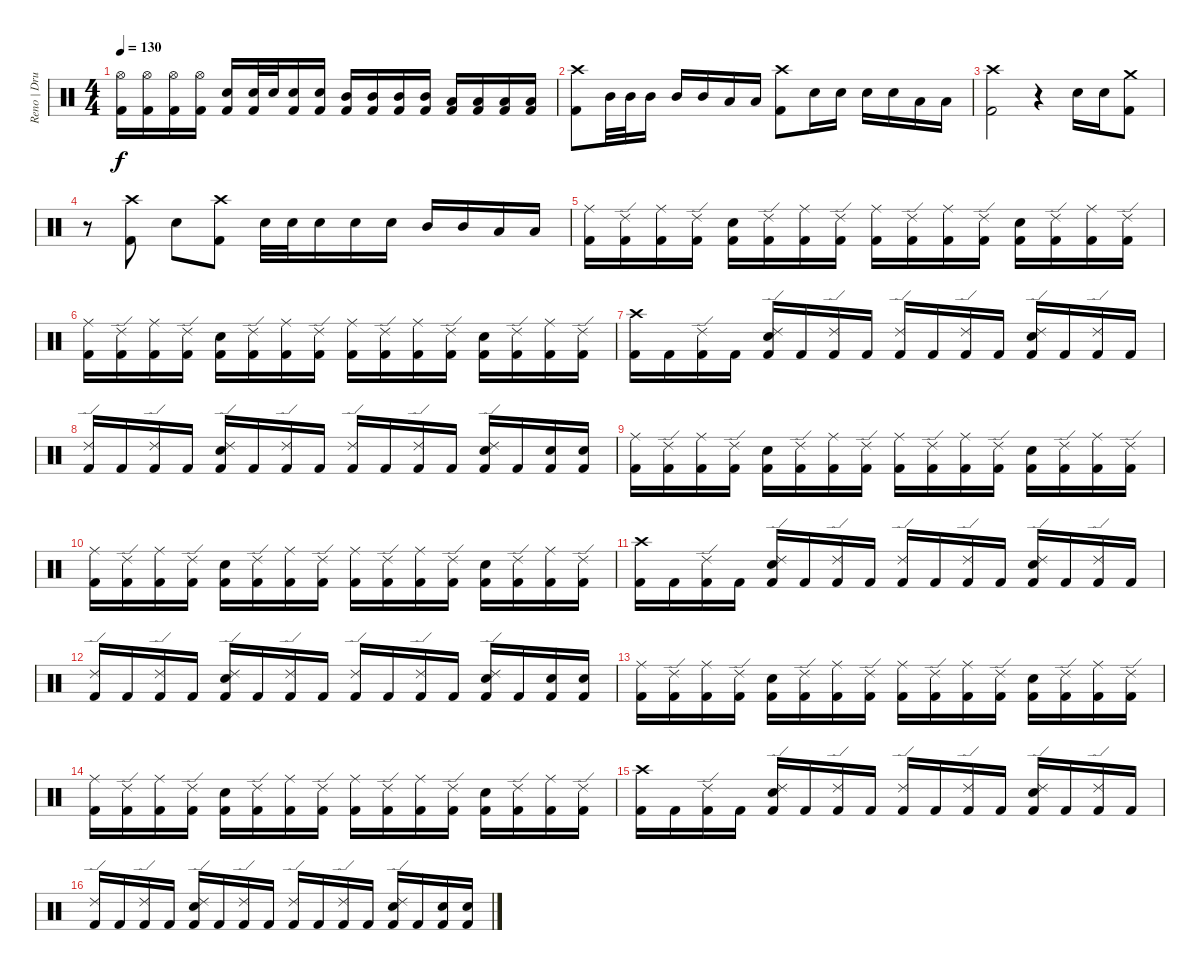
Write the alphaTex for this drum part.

\track ("Reno | Drums" "Reno | Dru") {instrument percussion}
\staff {score}
\articulation defaults
\ts (4 4)
\tempo 130
\clef neutral
\ks c
("Hi-Hat (open)" "Kick (hit) 2").16{dy f} ("Hi-Hat (open)" "Kick (hit) 2").16 ("Hi-Hat (open)" "Kick (hit) 2").16 ("Hi-Hat (open)" "Kick (hit) 2").16 ("Electric Snare (hit)" "Kick (hit) 2").16 ("Electric Snare (hit)" "Kick (hit) 2").32 "Electric Snare (hit)".32 ("Electric Snare (hit)" "Kick (hit) 2").16 ("Electric Snare (hit)" "Kick (hit) 2").16 ("Mid Tom (hit)" "Kick (hit) 2").16 ("Mid Tom (hit)" "Kick (hit) 2").16 ("Mid Tom (hit)" "Kick (hit) 2").16 ("Mid Tom (hit)" "Kick (hit) 2").16 ("Low Tom (hit)" "Kick (hit) 2").16 ("Low Tom (hit)" "Kick (hit) 2").16 ("Low Tom (hit)" "Kick (hit) 2").16 ("Low Tom (hit)" "Kick (hit) 2").16 |
("Crash high (hit)" "Kick (hit) 2").8 "Mid Tom (hit)".32 "Mid Tom (hit)".32 "Mid Tom (hit)".16 "Mid Tom (hit)".16 "Mid Tom (hit)".16 "Low Tom (hit)".16 "Low Tom (hit)".16 ("Crash high (hit)" "Kick (hit) 2").8 "Electric Snare (hit)".16 "Electric Snare (hit)".16 "Electric Snare (hit)".16 "Electric Snare (hit)".16 "Low Tom (hit)".16 "Low Tom (hit)".16 |
("Crash high (hit)" "Kick (hit) 2").2 r.4 "Electric Snare (hit)".16 "Electric Snare (hit)".16 ("Crash medium (hit)" "Kick (hit) 2").8 |
r.8 ("Crash high (hit)" "Kick (hit) 2").8 "Electric Snare (hit)".8 ("Crash high (hit)" "Kick (hit) 2").8 "Electric Snare (hit)".32 "Electric Snare (hit)".32 "Electric Snare (hit)".16 "Electric Snare (hit)".16 "Electric Snare (hit)".16 "Mid Tom (hit)".16 "Mid Tom (hit)".16 "Low Tom (hit)".16 "Low Tom (hit)".16 |
("Ride (middle)" "Kick (hit) 2").16 ("Ride (edge) 2" "Kick (hit) 2").16 ("Ride (middle)" "Kick (hit) 2").16 ("Ride (edge) 2" "Kick (hit) 2").16 ("Electric Snare (hit)" "Kick (hit) 2").16 ("Ride (edge) 2" "Kick (hit) 2").16 ("Ride (middle)" "Kick (hit) 2").16 ("Ride (edge) 2" "Kick (hit) 2").16 ("Ride (middle)" "Kick (hit) 2").16 ("Ride (edge) 2" "Kick (hit) 2").16 ("Ride (middle)" "Kick (hit) 2").16 ("Ride (edge) 2" "Kick (hit) 2").16 ("Electric Snare (hit)" "Kick (hit) 2").16 ("Ride (edge) 2" "Kick (hit) 2").16 ("Ride (middle)" "Kick (hit) 2").16 ("Ride (edge) 2" "Kick (hit) 2").16 |
("Ride (middle)" "Kick (hit) 2").16 ("Ride (edge) 2" "Kick (hit) 2").16 ("Ride (middle)" "Kick (hit) 2").16 ("Ride (edge) 2" "Kick (hit) 2").16 ("Electric Snare (hit)" "Kick (hit) 2").16 ("Ride (edge) 2" "Kick (hit) 2").16 ("Ride (middle)" "Kick (hit) 2").16 ("Ride (edge) 2" "Kick (hit) 2").16 ("Ride (middle)" "Kick (hit) 2").16 ("Ride (edge) 2" "Kick (hit) 2").16 ("Ride (middle)" "Kick (hit) 2").16 ("Ride (edge) 2" "Kick (hit) 2").16 ("Electric Snare (hit)" "Kick (hit) 2").16 ("Ride (edge) 2" "Kick (hit) 2").16 ("Ride (middle)" "Kick (hit) 2").16 ("Ride (edge) 2" "Kick (hit) 2").16 |
("Crash high (hit)" "Kick (hit) 2").16 "Kick (hit) 2".16 ("Ride (edge) 2" "Kick (hit) 2").16 "Kick (hit) 2".16 ("Ride (edge) 2" "Electric Snare (hit)" "Kick (hit) 2").16 "Kick (hit) 2".16 ("Ride (edge) 2" "Kick (hit) 2").16 "Kick (hit) 2".16 ("Ride (edge) 2" "Kick (hit) 2").16 "Kick (hit) 2".16 ("Ride (edge) 2" "Kick (hit) 2").16 "Kick (hit) 2".16 ("Ride (edge) 2" "Electric Snare (hit)" "Kick (hit) 2").16 "Kick (hit) 2".16 ("Ride (edge) 2" "Kick (hit) 2").16 "Kick (hit) 2".16 |
("Ride (edge) 2" "Kick (hit) 2").16 "Kick (hit) 2".16 ("Ride (edge) 2" "Kick (hit) 2").16 "Kick (hit) 2".16 ("Ride (edge) 2" "Electric Snare (hit)" "Kick (hit) 2").16 "Kick (hit) 2".16 ("Ride (edge) 2" "Kick (hit) 2").16 "Kick (hit) 2".16 ("Ride (edge) 2" "Kick (hit) 2").16 "Kick (hit) 2".16 ("Ride (edge) 2" "Kick (hit) 2").16 "Kick (hit) 2".16 ("Ride (edge) 2" "Electric Snare (hit)" "Kick (hit) 2").16 "Kick (hit) 2".16 ("Electric Snare (hit)" "Kick (hit) 2").16 ("Electric Snare (hit)" "Kick (hit) 2").16 |
("Ride (middle)" "Kick (hit) 2").16 ("Ride (edge) 2" "Kick (hit) 2").16 ("Ride (middle)" "Kick (hit) 2").16 ("Ride (edge) 2" "Kick (hit) 2").16 ("Electric Snare (hit)" "Kick (hit) 2").16 ("Ride (edge) 2" "Kick (hit) 2").16 ("Ride (middle)" "Kick (hit) 2").16 ("Ride (edge) 2" "Kick (hit) 2").16 ("Ride (middle)" "Kick (hit) 2").16 ("Ride (edge) 2" "Kick (hit) 2").16 ("Ride (middle)" "Kick (hit) 2").16 ("Ride (edge) 2" "Kick (hit) 2").16 ("Electric Snare (hit)" "Kick (hit) 2").16 ("Ride (edge) 2" "Kick (hit) 2").16 ("Ride (middle)" "Kick (hit) 2").16 ("Ride (edge) 2" "Kick (hit) 2").16 |
("Ride (middle)" "Kick (hit) 2").16 ("Ride (edge) 2" "Kick (hit) 2").16 ("Ride (middle)" "Kick (hit) 2").16 ("Ride (edge) 2" "Kick (hit) 2").16 ("Electric Snare (hit)" "Kick (hit) 2").16 ("Ride (edge) 2" "Kick (hit) 2").16 ("Ride (middle)" "Kick (hit) 2").16 ("Ride (edge) 2" "Kick (hit) 2").16 ("Ride (middle)" "Kick (hit) 2").16 ("Ride (edge) 2" "Kick (hit) 2").16 ("Ride (middle)" "Kick (hit) 2").16 ("Ride (edge) 2" "Kick (hit) 2").16 ("Electric Snare (hit)" "Kick (hit) 2").16 ("Ride (edge) 2" "Kick (hit) 2").16 ("Ride (middle)" "Kick (hit) 2").16 ("Ride (edge) 2" "Kick (hit) 2").16 |
("Crash high (hit)" "Kick (hit) 2").16 "Kick (hit) 2".16 ("Ride (edge) 2" "Kick (hit) 2").16 "Kick (hit) 2".16 ("Ride (edge) 2" "Electric Snare (hit)" "Kick (hit) 2").16 "Kick (hit) 2".16 ("Ride (edge) 2" "Kick (hit) 2").16 "Kick (hit) 2".16 ("Ride (edge) 2" "Kick (hit) 2").16 "Kick (hit) 2".16 ("Ride (edge) 2" "Kick (hit) 2").16 "Kick (hit) 2".16 ("Ride (edge) 2" "Electric Snare (hit)" "Kick (hit) 2").16 "Kick (hit) 2".16 ("Ride (edge) 2" "Kick (hit) 2").16 "Kick (hit) 2".16 |
("Ride (edge) 2" "Kick (hit) 2").16 "Kick (hit) 2".16 ("Ride (edge) 2" "Kick (hit) 2").16 "Kick (hit) 2".16 ("Ride (edge) 2" "Electric Snare (hit)" "Kick (hit) 2").16 "Kick (hit) 2".16 ("Ride (edge) 2" "Kick (hit) 2").16 "Kick (hit) 2".16 ("Ride (edge) 2" "Kick (hit) 2").16 "Kick (hit) 2".16 ("Ride (edge) 2" "Kick (hit) 2").16 "Kick (hit) 2".16 ("Ride (edge) 2" "Electric Snare (hit)" "Kick (hit) 2").16 "Kick (hit) 2".16 ("Electric Snare (hit)" "Kick (hit) 2").16 ("Electric Snare (hit)" "Kick (hit) 2").16 |
("Ride (middle)" "Kick (hit) 2").16 ("Ride (edge) 2" "Kick (hit) 2").16 ("Ride (middle)" "Kick (hit) 2").16 ("Ride (edge) 2" "Kick (hit) 2").16 ("Electric Snare (hit)" "Kick (hit) 2").16 ("Ride (edge) 2" "Kick (hit) 2").16 ("Ride (middle)" "Kick (hit) 2").16 ("Ride (edge) 2" "Kick (hit) 2").16 ("Ride (middle)" "Kick (hit) 2").16 ("Ride (edge) 2" "Kick (hit) 2").16 ("Ride (middle)" "Kick (hit) 2").16 ("Ride (edge) 2" "Kick (hit) 2").16 ("Electric Snare (hit)" "Kick (hit) 2").16 ("Ride (edge) 2" "Kick (hit) 2").16 ("Ride (middle)" "Kick (hit) 2").16 ("Ride (edge) 2" "Kick (hit) 2").16 |
("Ride (middle)" "Kick (hit) 2").16 ("Ride (edge) 2" "Kick (hit) 2").16 ("Ride (middle)" "Kick (hit) 2").16 ("Ride (edge) 2" "Kick (hit) 2").16 ("Electric Snare (hit)" "Kick (hit) 2").16 ("Ride (edge) 2" "Kick (hit) 2").16 ("Ride (middle)" "Kick (hit) 2").16 ("Ride (edge) 2" "Kick (hit) 2").16 ("Ride (middle)" "Kick (hit) 2").16 ("Ride (edge) 2" "Kick (hit) 2").16 ("Ride (middle)" "Kick (hit) 2").16 ("Ride (edge) 2" "Kick (hit) 2").16 ("Electric Snare (hit)" "Kick (hit) 2").16 ("Ride (edge) 2" "Kick (hit) 2").16 ("Ride (middle)" "Kick (hit) 2").16 ("Ride (edge) 2" "Kick (hit) 2").16 |
("Crash high (hit)" "Kick (hit) 2").16 "Kick (hit) 2".16 ("Ride (edge) 2" "Kick (hit) 2").16 "Kick (hit) 2".16 ("Ride (edge) 2" "Electric Snare (hit)" "Kick (hit) 2").16 "Kick (hit) 2".16 ("Ride (edge) 2" "Kick (hit) 2").16 "Kick (hit) 2".16 ("Ride (edge) 2" "Kick (hit) 2").16 "Kick (hit) 2".16 ("Ride (edge) 2" "Kick (hit) 2").16 "Kick (hit) 2".16 ("Ride (edge) 2" "Electric Snare (hit)" "Kick (hit) 2").16 "Kick (hit) 2".16 ("Ride (edge) 2" "Kick (hit) 2").16 "Kick (hit) 2".16 |
("Ride (edge) 2" "Kick (hit) 2").16 "Kick (hit) 2".16 ("Ride (edge) 2" "Kick (hit) 2").16 "Kick (hit) 2".16 ("Ride (edge) 2" "Electric Snare (hit)" "Kick (hit) 2").16 "Kick (hit) 2".16 ("Ride (edge) 2" "Kick (hit) 2").16 "Kick (hit) 2".16 ("Ride (edge) 2" "Kick (hit) 2").16 "Kick (hit) 2".16 ("Ride (edge) 2" "Kick (hit) 2").16 "Kick (hit) 2".16 ("Ride (edge) 2" "Electric Snare (hit)" "Kick (hit) 2").16 "Kick (hit) 2".16 ("Electric Snare (hit)" "Kick (hit) 2").16 ("Electric Snare (hit)" "Kick (hit) 2").16
